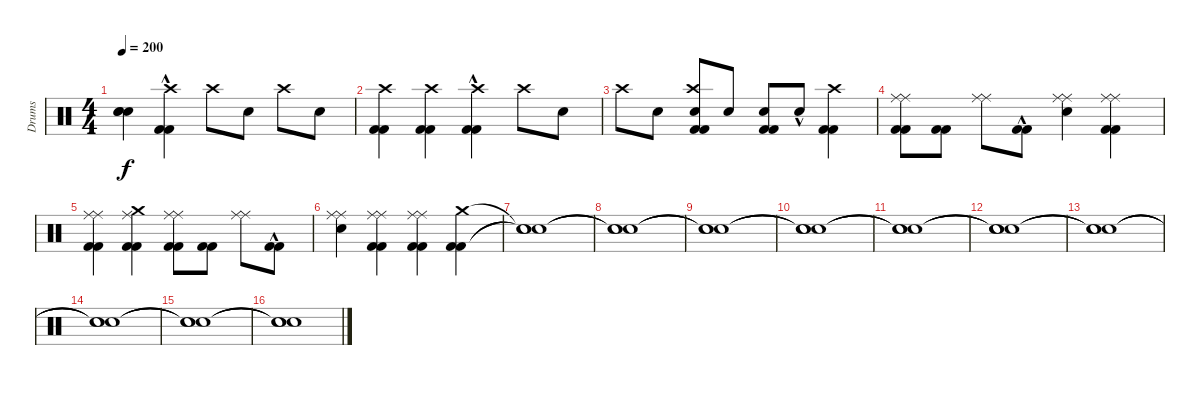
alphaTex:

\track ("Drums" "Drums") {instrument percussion}
\staff {score}
\articulation defaults
\ts (4 4)
\tempo 200
\clef neutral
\ks c
("Snare (hit)"{t} "Snare (hit)"{t} "Snare (hit)"{t}).4{dy f} ("Kick (hit) 2"{hac} "Kick (hit) 2"{hac} "Crash high (hit)").4 "Crash high (hit)".8 "Electric Snare (hit)".8 "Crash high (hit)".8 "Electric Snare (hit)".8 |
("Kick (hit) 2" "Kick (hit) 2" "Crash high (hit)").4 ("Kick (hit) 2" "Kick (hit) 2" "Crash high (hit)").4 ("Kick (hit) 2"{hac} "Kick (hit) 2"{hac} "Crash high (hit)").4 "Crash high (hit)".8 "Electric Snare (hit)".8 |
"Crash high (hit)".8 "Electric Snare (hit)".8 ("Kick (hit) 2" "Kick (hit) 2" "Electric Snare (hit)" "Crash high (hit)").8 "Electric Snare (hit)".8 ("Kick (hit) 2" "Kick (hit) 2" "Electric Snare (hit)").8 "Electric Snare (hit)"{hac}.8 ("Kick (hit) 2" "Kick (hit) 2" "Crash high (hit)").4 |
("Kick (hit) 2" "Kick (hit) 2" "Ride (middle)" "Ride (middle)").8 ("Kick (hit) 2" "Kick (hit) 2").8 ("Ride (middle)" "Ride (middle)").8 ("Kick (hit) 2"{hac} "Kick (hit) 2"{hac}).8 ("Electric Snare (hit)" "Ride (middle)" "Ride (middle)").4 ("Kick (hit) 2" "Kick (hit) 2" "Ride (middle)" "Ride (middle)").4 |
("Kick (hit) 2" "Kick (hit) 2" "Ride (middle)" "Ride (middle)").4 ("Kick (hit) 2" "Kick (hit) 2" "Ride (middle)" "Crash medium (hit)").4 ("Kick (hit) 2" "Kick (hit) 2" "Ride (middle)" "Ride (middle)").8 ("Kick (hit) 2" "Kick (hit) 2").8 ("Ride (middle)" "Ride (middle)").8 ("Kick (hit) 2"{hac} "Kick (hit) 2"{hac}).8 |
("Electric Snare (hit)" "Ride (middle)" "Ride (middle)").4 ("Kick (hit) 2" "Kick (hit) 2" "Ride (middle)" "Ride (middle)").4 ("Kick (hit) 2" "Kick (hit) 2" "Ride (middle)" "Ride (middle)").4 ("Kick (hit) 2" "Kick (hit) 2" "Crash medium (hit)").4 |
("Snare (hit)"{t} "Snare (hit)"{t} "Snare (hit)"{t}).1 |
("Snare (hit)"{t} "Snare (hit)"{t} "Snare (hit)"{t}).1 |
("Snare (hit)"{t} "Snare (hit)"{t} "Snare (hit)"{t}).1 |
("Snare (hit)"{t} "Snare (hit)"{t} "Snare (hit)"{t}).1 |
("Snare (hit)"{t} "Snare (hit)"{t} "Snare (hit)"{t}).1 |
("Snare (hit)"{t} "Snare (hit)"{t} "Snare (hit)"{t}).1 |
("Snare (hit)"{t} "Snare (hit)"{t} "Snare (hit)"{t}).1 |
("Snare (hit)"{t} "Snare (hit)"{t} "Snare (hit)"{t}).1 |
("Snare (hit)"{t} "Snare (hit)"{t} "Snare (hit)"{t}).1 |
("Snare (hit)"{t} "Snare (hit)"{t} "Snare (hit)"{t}).1
